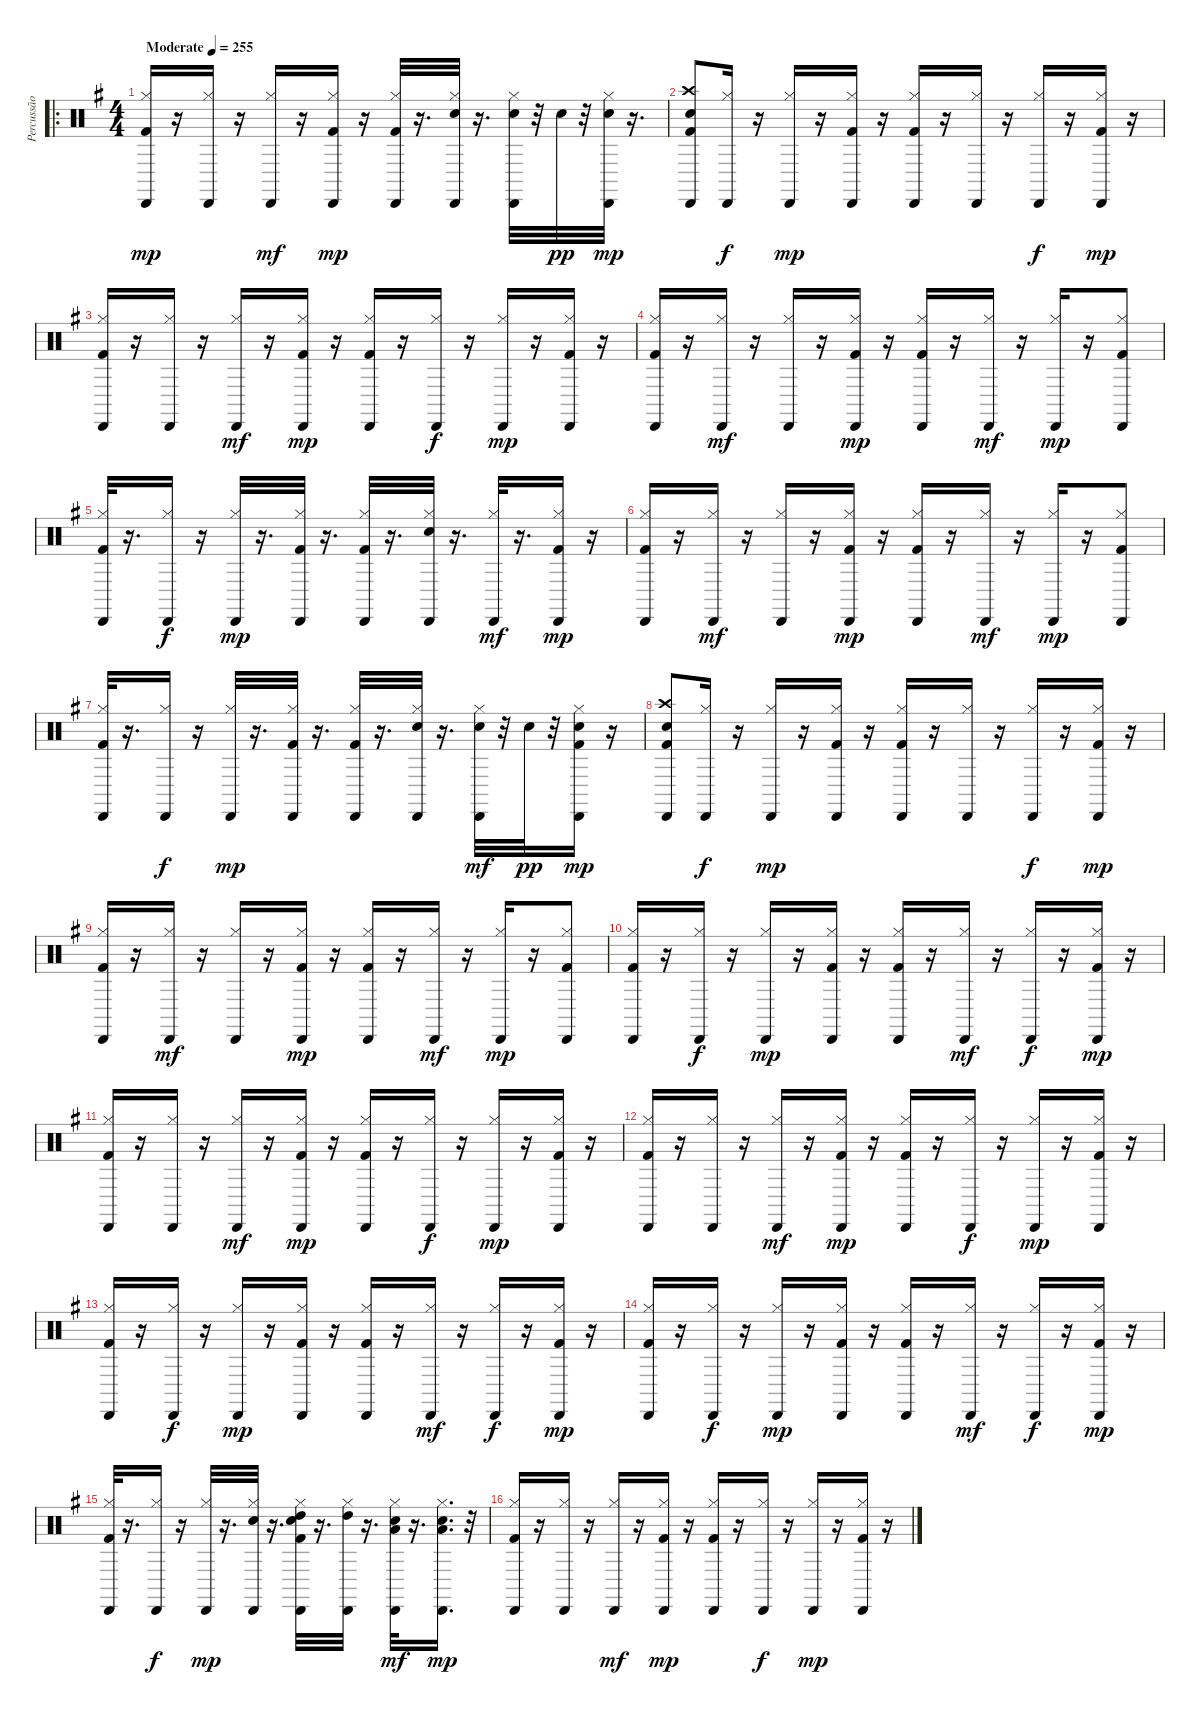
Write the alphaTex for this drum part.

\track ("Percussão" "Percussão") {instrument percussion}
\staff {score}
\articulation defaults
\ro
\ts (4 4)
\tempo (255 "Moderate")
\clef neutral
\ks g
("Kick (hit) 2" "Hi-Hat (closed)" "Cabasa (hit)").16{dy mp} r.16 ("Hi-Hat (closed)" "Cabasa (hit)").16 r.16 ("Hi-Hat (closed)" "Cabasa (hit)").16{dy mf} r.16 ("Kick (hit) 2" "Hi-Hat (closed)" "Cabasa (hit)").16{dy mp} r.16 ("Kick (hit) 2" "Hi-Hat (closed)" "Cabasa (hit)").32 r.16{d} ("Snare (hit) 2" "Hi-Hat (closed)" "Cabasa (hit)").32 r.16{d} ("Electric Snare (hit)" "Hi-Hat (closed)" "Cabasa (hit)").32 r.32 "Snare (hit) 2".32{dy pp} r.32 ("Electric Snare (hit)" "Hi-Hat (closed)" "Cabasa (hit)").32{dy mp} r.16{d} |
("Electric Snare (hit)" "Crash high (hit)" "Kick (hit) 2" "Cabasa (hit)").8 ("Hi-Hat (closed)" "Cabasa (hit)").16{dy f} r.16 ("Hi-Hat (closed)" "Cabasa (hit)").16{dy mp} r.16 ("Kick (hit) 2" "Hi-Hat (closed)" "Cabasa (hit)").16 r.16 ("Kick (hit) 2" "Hi-Hat (closed)" "Cabasa (hit)").16 r.16 ("Hi-Hat (closed)" "Cabasa (hit)").16 r.16 ("Hi-Hat (closed)" "Cabasa (hit)").16{dy f} r.16 ("Kick (hit) 2" "Hi-Hat (closed)" "Cabasa (hit)").16{dy mp} r.16 |
("Kick (hit) 2" "Hi-Hat (closed)" "Cabasa (hit)").16 r.16 ("Hi-Hat (closed)" "Cabasa (hit)").16 r.16 ("Hi-Hat (closed)" "Cabasa (hit)").16{dy mf} r.16 ("Kick (hit) 2" "Hi-Hat (closed)" "Cabasa (hit)").16{dy mp} r.16 ("Kick (hit) 2" "Hi-Hat (closed)" "Cabasa (hit)").16 r.16 ("Hi-Hat (closed)" "Cabasa (hit)").16{dy f} r.16 ("Hi-Hat (closed)" "Cabasa (hit)").16{dy mp} r.16 ("Kick (hit) 2" "Hi-Hat (closed)" "Cabasa (hit)").16 r.16 |
("Kick (hit) 2" "Hi-Hat (closed)" "Cabasa (hit)").16 r.16 ("Hi-Hat (closed)" "Cabasa (hit)").16{dy mf} r.16 ("Hi-Hat (closed)" "Cabasa (hit)").16 r.16 ("Kick (hit) 2" "Hi-Hat (closed)" "Cabasa (hit)").16{dy mp} r.16 ("Kick (hit) 2" "Hi-Hat (closed)" "Cabasa (hit)").16 r.16 ("Hi-Hat (closed)" "Cabasa (hit)").16{dy mf} r.16 ("Hi-Hat (closed)" "Cabasa (hit)").16{dy mp} r.16 ("Kick (hit) 2" "Hi-Hat (closed)" "Cabasa (hit)").8 |
("Kick (hit) 2" "Hi-Hat (closed)" "Cabasa (hit)").32 r.16{d} ("Hi-Hat (closed)" "Cabasa (hit)").16{dy f} r.16 ("Hi-Hat (closed)" "Cabasa (hit)").32{dy mp} r.16{d} ("Kick (hit) 2" "Hi-Hat (closed)" "Cabasa (hit)").32 r.16{d} ("Kick (hit) 2" "Hi-Hat (closed)" "Cabasa (hit)").32 r.16{d} ("Electric Snare (hit)" "Hi-Hat (closed)" "Cabasa (hit)").32 r.16{d} ("Hi-Hat (closed)" "Cabasa (hit)").32{dy mf} r.16{d} ("Kick (hit) 2" "Hi-Hat (closed)" "Cabasa (hit)").16{dy mp} r.16 |
("Kick (hit) 2" "Hi-Hat (closed)" "Cabasa (hit)").16 r.16 ("Hi-Hat (closed)" "Cabasa (hit)").16{dy mf} r.16 ("Hi-Hat (closed)" "Cabasa (hit)").16 r.16 ("Kick (hit) 2" "Hi-Hat (closed)" "Cabasa (hit)").16{dy mp} r.16 ("Kick (hit) 2" "Hi-Hat (closed)" "Cabasa (hit)").16 r.16 ("Hi-Hat (closed)" "Cabasa (hit)").16{dy mf} r.16 ("Hi-Hat (closed)" "Cabasa (hit)").16{dy mp} r.16 ("Kick (hit) 2" "Hi-Hat (closed)" "Cabasa (hit)").8 |
("Kick (hit) 2" "Hi-Hat (closed)" "Cabasa (hit)").32 r.16{d} ("Hi-Hat (closed)" "Cabasa (hit)").16{dy f} r.16 ("Hi-Hat (closed)" "Cabasa (hit)").32{dy mp} r.16{d} ("Kick (hit) 2" "Hi-Hat (closed)" "Cabasa (hit)").32 r.16{d} ("Kick (hit) 2" "Hi-Hat (closed)" "Cabasa (hit)").32 r.16{d} ("Electric Snare (hit)" "Hi-Hat (closed)" "Cabasa (hit)").32 r.16{d} ("Electric Snare (hit)" "Hi-Hat (closed)" "Cabasa (hit)").32{dy mf} r.32 "Snare (hit) 2".32{dy pp} r.32 ("Electric Snare (hit)" "Kick (hit) 2" "Hi-Hat (closed)" "Cabasa (hit)").16{dy mp} r.16 |
("Electric Snare (hit)" "Crash high (hit)" "Kick (hit) 2" "Cabasa (hit)").8 ("Hi-Hat (closed)" "Cabasa (hit)").16{dy f} r.16 ("Hi-Hat (closed)" "Cabasa (hit)").16{dy mp} r.16 ("Kick (hit) 2" "Hi-Hat (closed)" "Cabasa (hit)").16 r.16 ("Kick (hit) 2" "Hi-Hat (closed)" "Cabasa (hit)").16 r.16 ("Hi-Hat (closed)" "Cabasa (hit)").16 r.16 ("Hi-Hat (closed)" "Cabasa (hit)").16{dy f} r.16 ("Kick (hit) 2" "Hi-Hat (closed)" "Cabasa (hit)").16{dy mp} r.16 |
("Kick (hit) 2" "Hi-Hat (closed)" "Cabasa (hit)").16 r.16 ("Hi-Hat (closed)" "Cabasa (hit)").16{dy mf} r.16 ("Hi-Hat (closed)" "Cabasa (hit)").16 r.16 ("Kick (hit) 2" "Hi-Hat (closed)" "Cabasa (hit)").16{dy mp} r.16 ("Kick (hit) 2" "Hi-Hat (closed)" "Cabasa (hit)").16 r.16 ("Hi-Hat (closed)" "Cabasa (hit)").16{dy mf} r.16 ("Hi-Hat (closed)" "Cabasa (hit)").16{dy mp} r.16 ("Kick (hit) 2" "Hi-Hat (closed)" "Cabasa (hit)").8 |
("Kick (hit) 2" "Hi-Hat (closed)" "Cabasa (hit)").16 r.16 ("Hi-Hat (closed)" "Cabasa (hit)").16{dy f} r.16 ("Hi-Hat (closed)" "Cabasa (hit)").16{dy mp} r.16 ("Kick (hit) 2" "Hi-Hat (closed)" "Cabasa (hit)").16 r.16 ("Kick (hit) 2" "Hi-Hat (closed)" "Cabasa (hit)").16 r.16 ("Hi-Hat (closed)" "Cabasa (hit)").16{dy mf} r.16 ("Hi-Hat (closed)" "Cabasa (hit)").16{dy f} r.16 ("Kick (hit) 2" "Hi-Hat (closed)" "Cabasa (hit)").16{dy mp} r.16 |
("Kick (hit) 2" "Hi-Hat (closed)" "Cabasa (hit)").16 r.16 ("Hi-Hat (closed)" "Cabasa (hit)").16 r.16 ("Hi-Hat (closed)" "Cabasa (hit)").16{dy mf} r.16 ("Kick (hit) 2" "Hi-Hat (closed)" "Cabasa (hit)").16{dy mp} r.16 ("Kick (hit) 2" "Hi-Hat (closed)" "Cabasa (hit)").16 r.16 ("Hi-Hat (closed)" "Cabasa (hit)").16{dy f} r.16 ("Hi-Hat (closed)" "Cabasa (hit)").16{dy mp} r.16 ("Kick (hit) 2" "Hi-Hat (closed)" "Cabasa (hit)").16 r.16 |
("Kick (hit) 2" "Hi-Hat (closed)" "Cabasa (hit)").16 r.16 ("Hi-Hat (closed)" "Cabasa (hit)").16 r.16 ("Hi-Hat (closed)" "Cabasa (hit)").16{dy mf} r.16 ("Kick (hit) 2" "Hi-Hat (closed)" "Cabasa (hit)").16{dy mp} r.16 ("Kick (hit) 2" "Hi-Hat (closed)" "Cabasa (hit)").16 r.16 ("Hi-Hat (closed)" "Cabasa (hit)").16{dy f} r.16 ("Hi-Hat (closed)" "Cabasa (hit)").16{dy mp} r.16 ("Kick (hit) 2" "Hi-Hat (closed)" "Cabasa (hit)").16 r.16 |
("Kick (hit) 2" "Hi-Hat (closed)" "Cabasa (hit)").16 r.16 ("Hi-Hat (closed)" "Cabasa (hit)").16{dy f} r.16 ("Hi-Hat (closed)" "Cabasa (hit)").16{dy mp} r.16 ("Kick (hit) 2" "Hi-Hat (closed)" "Cabasa (hit)").16 r.16 ("Kick (hit) 2" "Hi-Hat (closed)" "Cabasa (hit)").16 r.16 ("Hi-Hat (closed)" "Cabasa (hit)").16{dy mf} r.16 ("Hi-Hat (closed)" "Cabasa (hit)").16{dy f} r.16 ("Kick (hit) 2" "Hi-Hat (closed)" "Cabasa (hit)").16{dy mp} r.16 |
("Kick (hit) 2" "Hi-Hat (closed)" "Cabasa (hit)").16 r.16 ("Hi-Hat (closed)" "Cabasa (hit)").16{dy f} r.16 ("Hi-Hat (closed)" "Cabasa (hit)").16{dy mp} r.16 ("Kick (hit) 2" "Hi-Hat (closed)" "Cabasa (hit)").16 r.16 ("Kick (hit) 2" "Hi-Hat (closed)" "Cabasa (hit)").16 r.16 ("Hi-Hat (closed)" "Cabasa (hit)").16{dy mf} r.16 ("Hi-Hat (closed)" "Cabasa (hit)").16{dy f} r.16 ("Kick (hit) 2" "Hi-Hat (closed)" "Cabasa (hit)").16{dy mp} r.16 |
("Kick (hit) 2" "Hi-Hat (closed)" "Cabasa (hit)").32 r.16{d} ("Hi-Hat (closed)" "Cabasa (hit)").16{dy f} r.16 ("Hi-Hat (closed)" "Cabasa (hit)").32{dy mp} r.16{d} ("Electric Snare (hit)" "Hi-Hat (closed)" "Cabasa (hit)").32 r.16{d} ("High Tom (hit)" "Electric Snare (hit)" "Kick (hit) 2" "Hi-Hat (closed)" "Cabasa (hit)").32 r.16{d} ("High Tom (hit)" "Hi-Hat (closed)" "Cabasa (hit)").32 r.16{d} ("Low Tom (hit)" "Electric Snare (hit)" "Hi-Hat (closed)" "Cabasa (hit)").32{dy mf} r.16{d} ("Low Tom (hit)" "Electric Snare (hit)" "Hi-Hat (closed)" "Cabasa (hit)").16{d dy mp} r.32 |
("Kick (hit) 2" "Hi-Hat (closed)" "Cabasa (hit)").16 r.16 ("Hi-Hat (closed)" "Cabasa (hit)").16 r.16 ("Hi-Hat (closed)" "Cabasa (hit)").16{dy mf} r.16 ("Kick (hit) 2" "Hi-Hat (closed)" "Cabasa (hit)").16{dy mp} r.16 ("Kick (hit) 2" "Hi-Hat (closed)" "Cabasa (hit)").16 r.16 ("Hi-Hat (closed)" "Cabasa (hit)").16{dy f} r.16 ("Hi-Hat (closed)" "Cabasa (hit)").16{dy mp} r.16 ("Kick (hit) 2" "Hi-Hat (closed)" "Cabasa (hit)").16 r.16
